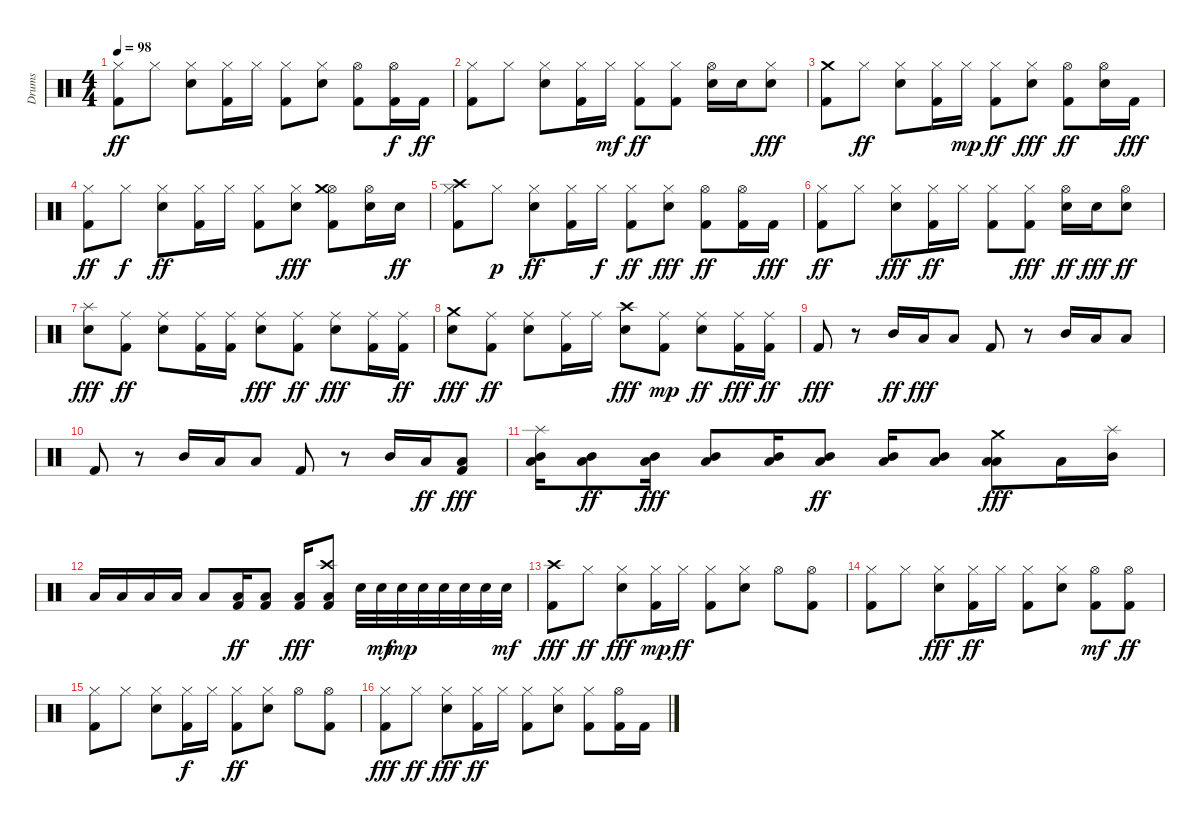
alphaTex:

\track ("Drums" "Drums") {instrument percussion}
\staff {score}
\articulation defaults
\ts (4 4)
\tempo 98
\clef neutral
\ks c
("Kick (hit) 2" "Hi-Hat (closed)").8{dy ff} "Hi-Hat (closed)".8 ("Snare (hit) 2" "Hi-Hat (closed)").8 ("Kick (hit) 2" "Hi-Hat (closed)").16 "Hi-Hat (closed)".16 ("Kick (hit) 2" "Hi-Hat (closed)").8 ("Snare (hit) 2" "Hi-Hat (closed)").8 ("Kick (hit) 2" "Hi-Hat (open)").8 ("Kick (hit) 2" "Hi-Hat (open)").16{dy f} "Kick (hit) 2".16{dy ff} |
("Kick (hit) 2" "Hi-Hat (closed)").8 "Hi-Hat (closed)".8 ("Snare (hit) 2" "Hi-Hat (closed)").8 ("Kick (hit) 2" "Hi-Hat (closed)").16 "Hi-Hat (closed)".16{dy mf} ("Kick (hit) 2" "Hi-Hat (closed)").8{dy ff} ("Kick (hit) 2" "Hi-Hat (closed)").8 ("Snare (hit) 2" "Hi-Hat (open)").16 "Snare (hit) 2".16 ("Snare (hit) 2" "Hi-Hat (closed)").8{dy fff} |
("Kick (hit) 2" "Crash medium (hit)").8 "Hi-Hat (closed)".8{dy ff} ("Snare (hit) 2" "Hi-Hat (closed)").8 ("Kick (hit) 2" "Hi-Hat (closed)").16 "Hi-Hat (closed)".16{dy mp} ("Kick (hit) 2" "Hi-Hat (closed)").8{dy ff} ("Snare (hit) 2" "Hi-Hat (closed)").8{dy fff} ("Kick (hit) 2" "Hi-Hat (open)").8{dy ff} ("Snare (hit) 2" "Hi-Hat (open)").16 "Kick (hit) 2".16{dy fff} |
("Kick (hit) 2" "Hi-Hat (closed)").8{dy ff} "Hi-Hat (closed)".8{dy f} ("Snare (hit) 2" "Hi-Hat (closed)").8{dy ff} ("Kick (hit) 2" "Hi-Hat (closed)").16 "Hi-Hat (closed)".16 ("Kick (hit) 2" "Hi-Hat (closed)").8 ("Snare (hit) 2" "Hi-Hat (closed)").8{dy fff} ("Kick (hit) 2" "Hi-Hat (open)" "Crash medium (hit)").8 ("Snare (hit) 2" "Hi-Hat (open)").16 "Snare (hit) 2".16{dy ff} |
("Kick (hit) 2" "Crash high (hit)" "Hi-Hat (closed)").8 "Hi-Hat (closed)".8{dy p} ("Snare (hit) 2" "Hi-Hat (closed)").8{dy ff} ("Kick (hit) 2" "Hi-Hat (closed)").16 "Hi-Hat (closed)".16{dy f} ("Kick (hit) 2" "Hi-Hat (closed)").8{dy ff} ("Snare (hit) 2" "Hi-Hat (closed)").8{dy fff} ("Kick (hit) 2" "Hi-Hat (open)").8{dy ff} ("Kick (hit) 2" "Hi-Hat (open)").16 "Kick (hit) 2".16{dy fff} |
("Kick (hit) 2" "Hi-Hat (closed)").8{dy ff} "Hi-Hat (closed)".8 ("Snare (hit) 2" "Hi-Hat (closed)").8{dy fff} ("Kick (hit) 2" "Hi-Hat (closed)").16{dy ff} "Hi-Hat (closed)".16 ("Kick (hit) 2" "Hi-Hat (closed)").8 ("Kick (hit) 2" "Hi-Hat (closed)").8{dy fff} ("Snare (hit) 2" "Hi-Hat (open)").16{dy ff} "Snare (hit) 2".16{dy fff} ("Snare (hit) 2" "Hi-Hat (open)").8{dy ff} |
("Snare (hit) 2" "Splash (hit)").8{dy fff} ("Kick (hit) 2" "Ride (middle)").8{dy ff} ("Snare (hit) 2" "Ride (middle)").8 ("Kick (hit) 2" "Ride (middle)").16 ("Kick (hit) 2" "Ride (middle)").16 ("Snare (hit) 2" "Ride (middle)").8{dy fff} ("Kick (hit) 2" "Ride (middle)").8{dy ff} ("Snare (hit) 2" "Ride (middle)").8{dy fff} ("Kick (hit) 2" "Ride (middle)").16 ("Kick (hit) 2" "Ride (middle)").16{dy ff} |
("Snare (hit) 2" "Crash medium (hit)").8{dy fff} ("Kick (hit) 2" "Ride (middle)").8{dy ff} ("Snare (hit) 2" "Ride (middle)").8 ("Kick (hit) 2" "Ride (middle)").16 "Ride (middle)".16 ("Snare (hit) 2" "Crash high (hit)").8{dy fff} ("Kick (hit) 2" "Ride (middle)").8{dy mp} ("Snare (hit) 2" "Ride (middle)").8{dy ff} ("Kick (hit) 2" "Ride (middle)").16{dy fff} ("Kick (hit) 2" "Ride (middle)").16{dy ff} |
"Kick (hit) 2".8{dy fff} r.8 "Mid Tom (hit)".16{dy ff} "Low Tom (hit)".16{dy fff} "Low Floor Tom (hit)".8 "Kick (hit) 2".8 r.8 "Mid Tom (hit)".16 "Low Tom (hit)".16 "Low Floor Tom (hit)".8 |
"Kick (hit) 2".8 r.8 "Mid Tom (hit)".16 "Low Tom (hit)".16 "Low Floor Tom (hit)".8 "Kick (hit) 2".8 r.8 "Mid Tom (hit)".16 "Low Tom (hit)".16{dy ff} ("Kick (hit) 2" "Low Floor Tom (hit)").8{dy fff} |
("Low Tom (hit)" "Mid Tom (hit)" "Splash (hit)").16 ("Low Tom (hit)" "Mid Tom (hit)").8{dy ff} ("Low Tom (hit)" "Mid Tom (hit)").16{dy fff} ("Low Tom (hit)" "Mid Tom (hit)").8 ("Low Tom (hit)" "Mid Tom (hit)").16 ("Low Tom (hit)" "Mid Tom (hit)").8{dy ff} ("Low Tom (hit)" "Mid Tom (hit)").16 ("Low Tom (hit)" "Mid Tom (hit)").8 ("Low Floor Tom (hit)" "Low Tom (hit)" "Crash medium (hit)").8{dy fff} "Low Floor Tom (hit)".16 ("Mid Tom (hit)" "Splash (hit)").16 |
"Low Floor Tom (hit)".16 "Low Floor Tom (hit)".16 "Low Floor Tom (hit)".16 "Low Floor Tom (hit)".16 "Low Floor Tom (hit)".8 ("Kick (hit) 2" "Low Tom (hit)").16{dy ff} ("Kick (hit) 2" "Low Tom (hit)").8 ("Kick (hit) 2" "Low Tom (hit)").16{dy fff} ("Kick (hit) 2" "Low Tom (hit)" "Crash high (hit)").8 "Snare (hit) 2".32 "Snare (hit) 2".32{dy mf} "Snare (hit) 2".32{dy mp} "Snare (hit) 2".32 "Snare (hit) 2".32 "Snare (hit) 2".32 "Snare (hit) 2".32 "Snare (hit) 2".32{dy mf} |
("Kick (hit) 2" "Crash high (hit)").8{dy fff} "Hi-Hat (closed)".8{dy ff} ("Snare (hit) 2" "Hi-Hat (closed)").8{dy fff} ("Kick (hit) 2" "Hi-Hat (closed)").16{dy mp} "Hi-Hat (closed)".16{dy ff} ("Kick (hit) 2" "Hi-Hat (closed)").8 ("Snare (hit) 2" "Hi-Hat (closed)").8 "Hi-Hat (open)".8 ("Kick (hit) 2" "Hi-Hat (open)").8 |
("Kick (hit) 2" "Hi-Hat (closed)").8 "Hi-Hat (closed)".8 ("Snare (hit) 2" "Hi-Hat (closed)").8{dy fff} ("Kick (hit) 2" "Hi-Hat (closed)").16{dy ff} "Hi-Hat (closed)".16 ("Kick (hit) 2" "Hi-Hat (closed)").8 ("Snare (hit) 2" "Hi-Hat (closed)").8 ("Kick (hit) 2" "Hi-Hat (open)").8{dy mf} ("Kick (hit) 2" "Hi-Hat (open)").8{dy ff} |
("Kick (hit) 2" "Hi-Hat (closed)").8 "Hi-Hat (closed)".8 ("Snare (hit) 2" "Hi-Hat (closed)").8 ("Kick (hit) 2" "Hi-Hat (closed)").16{dy f} "Hi-Hat (closed)".16 ("Kick (hit) 2" "Hi-Hat (closed)").8{dy ff} ("Snare (hit) 2" "Hi-Hat (closed)").8 "Hi-Hat (open)".8 ("Kick (hit) 2" "Hi-Hat (open)").8 |
("Kick (hit) 2" "Hi-Hat (closed)").8{dy fff} "Hi-Hat (closed)".8{dy ff} ("Snare (hit) 2" "Hi-Hat (closed)").8{dy fff} ("Kick (hit) 2" "Hi-Hat (closed)").16{dy ff} "Hi-Hat (closed)".16 ("Kick (hit) 2" "Hi-Hat (closed)").8 ("Snare (hit) 2" "Hi-Hat (closed)").8 ("Kick (hit) 2" "Hi-Hat (closed)").8 ("Kick (hit) 2" "Hi-Hat (open)").16 "Kick (hit) 2".16
